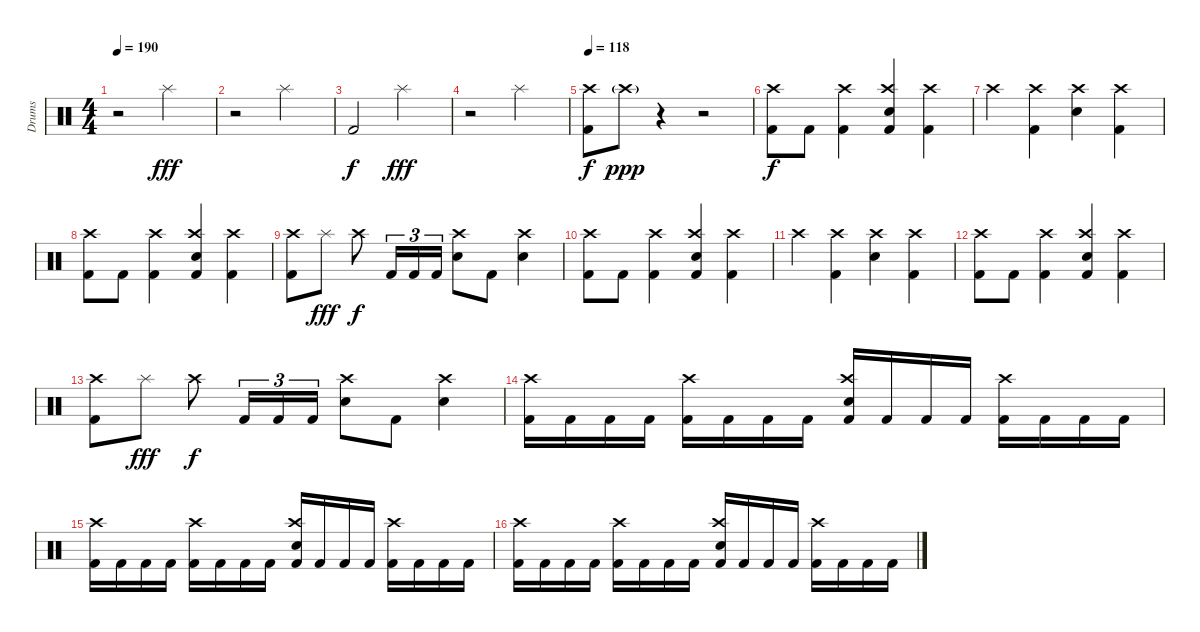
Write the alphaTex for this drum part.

\track ("Drums" "Drums") {instrument percussion}
\staff {score}
\articulation defaults
\ts (4 4)
\tempo 190
\clef neutral
\ks c
r.2{dy fff} "Splash (hit)".2 |
r.2 "Splash (hit)".2 |
"Kick (hit) 2".2{dy f} "Splash (hit)".2{dy fff} |
r.2 "Splash (hit)".2 |
\tempo 118
("Crash high (hit)" "Kick (hit) 2").8{dy f} "Crash high (hit)"{g}.8{dy ppp} r.4 r.2 |
("Crash high (hit)" "Kick (hit) 2").8{dy f} "Kick (hit) 2".8 ("Crash high (hit)" "Kick (hit) 2").4 ("Crash high (hit)" "Electric Snare (hit)" "Kick (hit) 2").4 ("Crash high (hit)" "Kick (hit) 2").4 |
"Crash high (hit)".4 ("Crash high (hit)" "Kick (hit) 2").4 ("Crash high (hit)" "Electric Snare (hit)").4 ("Crash high (hit)" "Kick (hit) 2").4 |
("Crash high (hit)" "Kick (hit) 2").8 "Kick (hit) 2".8 ("Crash high (hit)" "Kick (hit) 2").4 ("Crash high (hit)" "Electric Snare (hit)" "Kick (hit) 2").4 ("Crash high (hit)" "Kick (hit) 2").4 |
("Crash high (hit)" "Kick (hit) 2").8 "Splash (hit)".8{dy fff} "Crash high (hit)".8{dy f} "Kick (hit) 2".16{tu (3 2)} "Kick (hit) 2".16{tu (3 2)} "Kick (hit) 2".16{tu (3 2)} ("Crash high (hit)" "Electric Snare (hit)").8 "Kick (hit) 2".8 ("Crash high (hit)" "Electric Snare (hit)").4 |
("Crash high (hit)" "Kick (hit) 2").8 "Kick (hit) 2".8 ("Crash high (hit)" "Kick (hit) 2").4 ("Crash high (hit)" "Electric Snare (hit)" "Kick (hit) 2").4 ("Crash high (hit)" "Kick (hit) 2").4 |
"Crash high (hit)".4 ("Crash high (hit)" "Kick (hit) 2").4 ("Crash high (hit)" "Electric Snare (hit)").4 ("Crash high (hit)" "Kick (hit) 2").4 |
("Crash high (hit)" "Kick (hit) 2").8 "Kick (hit) 2".8 ("Crash high (hit)" "Kick (hit) 2").4 ("Crash high (hit)" "Electric Snare (hit)" "Kick (hit) 2").4 ("Crash high (hit)" "Kick (hit) 2").4 |
("Crash high (hit)" "Kick (hit) 2").8 "Splash (hit)".8{dy fff} "Crash high (hit)".8{dy f} "Kick (hit) 2".16{tu (3 2)} "Kick (hit) 2".16{tu (3 2)} "Kick (hit) 2".16{tu (3 2)} ("Crash high (hit)" "Electric Snare (hit)").8 "Kick (hit) 2".8 ("Crash high (hit)" "Electric Snare (hit)").4 |
("Crash high (hit)" "Kick (hit) 2").16 "Kick (hit) 2".16 "Kick (hit) 2".16 "Kick (hit) 2".16 ("Crash high (hit)" "Kick (hit) 2").16 "Kick (hit) 2".16 "Kick (hit) 2".16 "Kick (hit) 2".16 ("Crash high (hit)" "Electric Snare (hit)" "Kick (hit) 2").16 "Kick (hit) 2".16 "Kick (hit) 2".16 "Kick (hit) 2".16 ("Crash high (hit)" "Kick (hit) 2").16 "Kick (hit) 2".16 "Kick (hit) 2".16 "Kick (hit) 2".16 |
("Crash high (hit)" "Kick (hit) 2").16 "Kick (hit) 2".16 "Kick (hit) 2".16 "Kick (hit) 2".16 ("Crash high (hit)" "Kick (hit) 2").16 "Kick (hit) 2".16 "Kick (hit) 2".16 "Kick (hit) 2".16 ("Crash high (hit)" "Electric Snare (hit)" "Kick (hit) 2").16 "Kick (hit) 2".16 "Kick (hit) 2".16 "Kick (hit) 2".16 ("Crash high (hit)" "Kick (hit) 2").16 "Kick (hit) 2".16 "Kick (hit) 2".16 "Kick (hit) 2".16 |
("Crash high (hit)" "Kick (hit) 2").16 "Kick (hit) 2".16 "Kick (hit) 2".16 "Kick (hit) 2".16 ("Crash high (hit)" "Kick (hit) 2").16 "Kick (hit) 2".16 "Kick (hit) 2".16 "Kick (hit) 2".16 ("Crash high (hit)" "Electric Snare (hit)" "Kick (hit) 2").16 "Kick (hit) 2".16 "Kick (hit) 2".16 "Kick (hit) 2".16 ("Crash high (hit)" "Kick (hit) 2").16 "Kick (hit) 2".16 "Kick (hit) 2".16 "Kick (hit) 2".16
